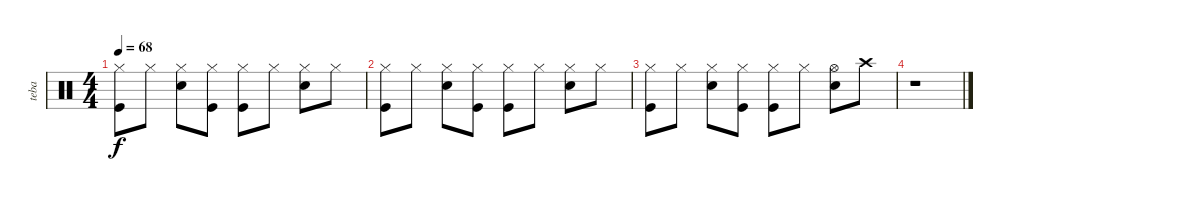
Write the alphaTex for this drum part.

\track ("teba" "teba") {instrument percussion}
\staff {score}
\articulation defaults
\ts (4 4)
\tempo 68
\clef neutral
\ks c
("Hi-Hat (closed)" "Kick (hit)").8{dy f} "Hi-Hat (closed)".8 ("Hi-Hat (closed)" "Electric Snare (hit)").8 ("Hi-Hat (closed)" "Kick (hit)").8 ("Hi-Hat (closed)" "Kick (hit)").8 "Hi-Hat (closed)".8 ("Hi-Hat (closed)" "Electric Snare (hit)").8 "Hi-Hat (closed)".8 |
("Hi-Hat (closed)" "Kick (hit)").8 "Hi-Hat (closed)".8 ("Hi-Hat (closed)" "Electric Snare (hit)").8 ("Hi-Hat (closed)" "Kick (hit)").8 ("Hi-Hat (closed)" "Kick (hit)").8 "Hi-Hat (closed)".8 ("Hi-Hat (closed)" "Electric Snare (hit)").8 "Hi-Hat (closed)".8 |
("Hi-Hat (closed)" "Kick (hit)").8 "Hi-Hat (closed)".8 ("Hi-Hat (closed)" "Electric Snare (hit)").8 ("Hi-Hat (closed)" "Kick (hit)").8 ("Hi-Hat (closed)" "Kick (hit)").8 "Hi-Hat (closed)".8 ("Hi-Hat (open)" "Electric Snare (hit)").8 "Crash high (hit)".8 |
r.1
